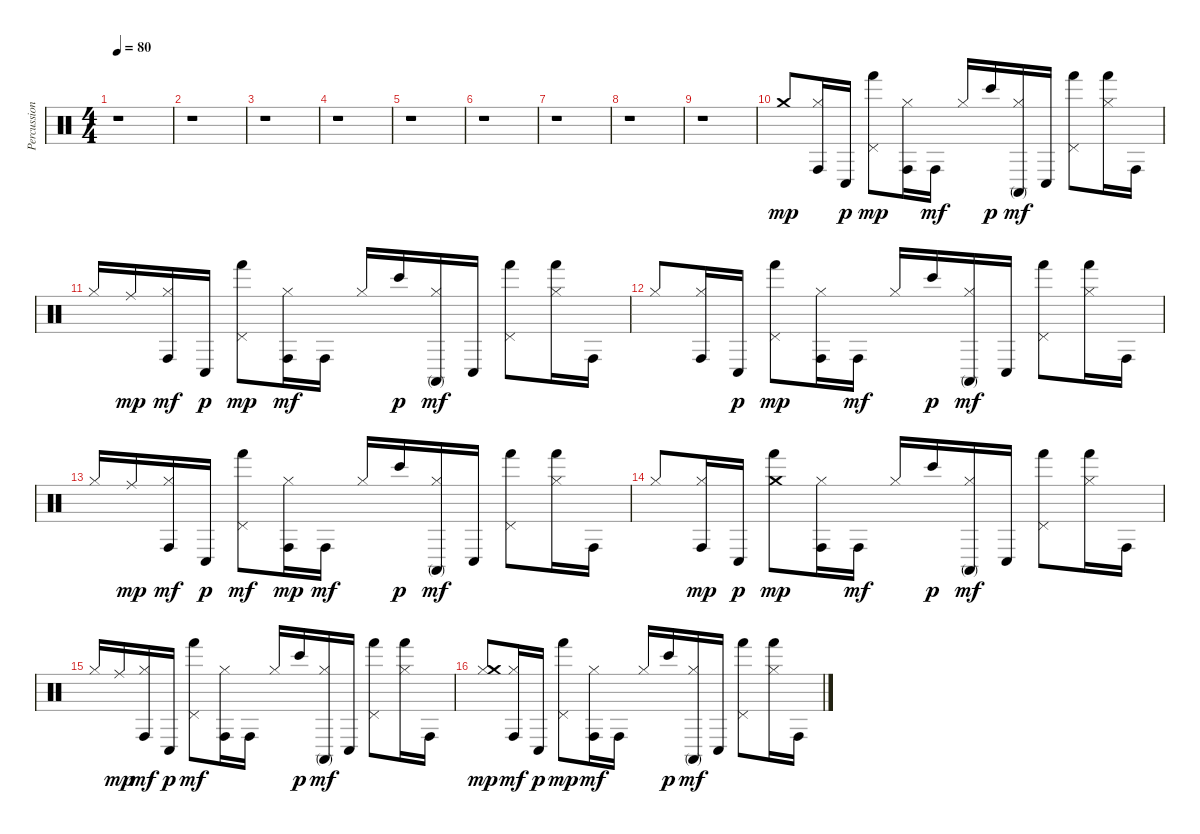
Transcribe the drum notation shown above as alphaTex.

\track ("Percussion" "Percussion") {instrument percussion}
\staff {score}
\articulation defaults
\ts (4 4)
\tempo 80
\clef neutral
\ks c
r.1{dy mf} |
r.1 |
r.1 |
r.1 |
r.1 |
r.1 |
r.1 |
r.1 |
r.1 |
"Crash medium (hit)".8{dy mp} ("Conga high (hit)" "Hi-Hat (closed)").16 "Conga low (hit)".16{dy p} ("Hand (hit)" "Pedal Hi-Hat (hit)").8{dy mp} ("Conga high (hit)" "Hi-Hat (closed)").16 "Conga high (hit)".16{dy mf} "Hi-Hat (closed)".16 "Bongo High (hit)".16{dy p} ("Hi-Hat (closed)" "Conga high (mute)").16{dy mf} "Conga low (hit)".16 ("Pedal Hi-Hat (hit)" "Hand (hit)").8 ("Hand (hit)" "Hi-Hat (closed)").16 "Conga high (hit)".16 |
"Hi-Hat (closed)".16 "Ride (middle)".16{dy mp} ("Hi-Hat (closed)" "Conga high (hit)").16{dy mf} "Conga low (hit)".16{dy p} ("Pedal Hi-Hat (hit)" "Hand (hit)").8{dy mp} ("Hi-Hat (closed)" "Conga high (hit)").16{dy mf} "Conga high (hit)".16 "Hi-Hat (closed)".16 "Bongo High (hit)".16{dy p} ("Hi-Hat (closed)" "Conga high (mute)").16{dy mf} "Conga low (hit)".16 ("Hand (hit)" "Pedal Hi-Hat (hit)").8 ("Hand (hit)" "Hi-Hat (closed)").16 "Conga high (hit)".16 |
"Hi-Hat (closed)".8 ("Hi-Hat (closed)" "Conga high (hit)").16 "Conga low (hit)".16{dy p} ("Pedal Hi-Hat (hit)" "Hand (hit)").8{dy mp} ("Conga high (hit)" "Hi-Hat (closed)").16 "Conga high (hit)".16{dy mf} "Hi-Hat (closed)".16 "Bongo High (hit)".16{dy p} ("Conga high (mute)" "Hi-Hat (closed)").16{dy mf} "Conga low (hit)".16 ("Pedal Hi-Hat (hit)" "Hand (hit)").8 ("Hi-Hat (closed)" "Hand (hit)").16 "Conga high (hit)".16 |
"Hi-Hat (closed)".16 "Ride (middle)".16{dy mp} ("Hi-Hat (closed)" "Conga high (hit)").16{dy mf} "Conga low (hit)".16{dy p} ("Hand (hit)" "Pedal Hi-Hat (hit)").8{dy mf} ("Conga high (hit)" "Hi-Hat (closed)").16{dy mp} "Conga high (hit)".16{dy mf} "Hi-Hat (closed)".16 "Bongo High (hit)".16{dy p} ("Hi-Hat (closed)" "Conga high (mute)").16{dy mf} "Conga low (hit)".16 ("Hand (hit)" "Pedal Hi-Hat (hit)").8 ("Hand (hit)" "Hi-Hat (closed)").16 "Conga high (hit)".16 |
"Hi-Hat (closed)".8 ("Conga high (hit)" "Hi-Hat (closed)").16{dy mp} "Conga low (hit)".16{dy p} ("Crash medium (hit)" "Hand (hit)").8{dy mp} ("Conga high (hit)" "Hi-Hat (closed)").16 "Conga high (hit)".16{dy mf} "Hi-Hat (closed)".16 "Bongo High (hit)".16{dy p} ("Hi-Hat (closed)" "Conga high (mute)").16{dy mf} "Conga low (hit)".16 ("Hand (hit)" "Pedal Hi-Hat (hit)").8 ("Hi-Hat (closed)" "Hand (hit)").16 "Conga high (hit)".16 |
"Hi-Hat (closed)".16 "Ride (middle)".16{dy mp} ("Hi-Hat (closed)" "Conga high (hit)").16{dy mf} "Conga low (hit)".16{dy p} ("Hand (hit)" "Pedal Hi-Hat (hit)").8{dy mf} ("Hi-Hat (closed)" "Conga high (hit)").16 "Conga high (hit)".16 "Hi-Hat (closed)".16 "Bongo High (hit)".16{dy p} ("Hi-Hat (closed)" "Conga high (mute)").16{dy mf} "Conga low (hit)".16 ("Pedal Hi-Hat (hit)" "Hand (hit)").8 ("Hi-Hat (closed)" "Hand (hit)").16 "Conga high (hit)".16 |
("Hi-Hat (closed)" "Crash medium (hit)").8{dy mp} ("Hi-Hat (closed)" "Conga high (hit)").16{dy mf} "Conga low (hit)".16{dy p} ("Hand (hit)" "Pedal Hi-Hat (hit)").8{dy mp} ("Hi-Hat (closed)" "Conga high (hit)").16{dy mf} "Conga high (hit)".16 "Hi-Hat (closed)".16 "Bongo High (hit)".16{dy p} ("Hi-Hat (closed)" "Conga high (mute)").16{dy mf} "Conga low (hit)".16 ("Pedal Hi-Hat (hit)" "Hand (hit)").8 ("Hand (hit)" "Hi-Hat (closed)").16 "Conga high (hit)".16
